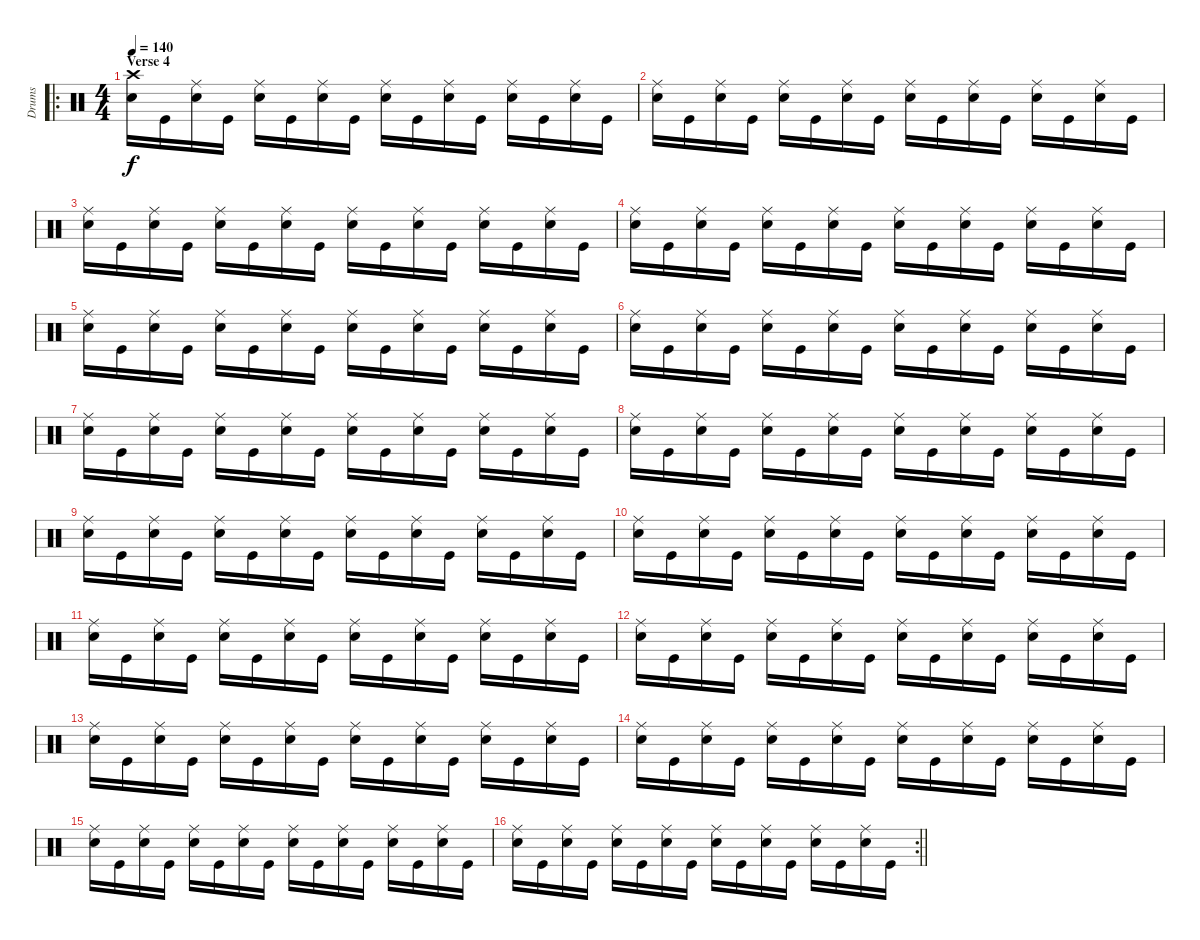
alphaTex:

\track ("Drums" "Drums") {instrument percussion}
\staff {score}
\articulation defaults
\ro
\ts (4 4)
\section ("" "Verse 4")
\tempo 140
\clef neutral
\ks c
("Crash high (hit)" "Snare (hit) 2").16{dy f} "Kick (hit)".16 ("Ride (middle)" "Snare (hit) 2").16 "Kick (hit)".16 ("Ride (middle)" "Snare (hit) 2").16 "Kick (hit)".16 ("Ride (middle)" "Snare (hit) 2").16 "Kick (hit)".16 ("Ride (middle)" "Snare (hit) 2").16 "Kick (hit)".16 ("Ride (middle)" "Snare (hit) 2").16 "Kick (hit)".16 ("Ride (middle)" "Snare (hit) 2").16 "Kick (hit)".16 ("Ride (middle)" "Snare (hit) 2").16 "Kick (hit)".16 |
("Ride (middle)" "Snare (hit) 2").16 "Kick (hit)".16 ("Ride (middle)" "Snare (hit) 2").16 "Kick (hit)".16 ("Ride (middle)" "Snare (hit) 2").16 "Kick (hit)".16 ("Ride (middle)" "Snare (hit) 2").16 "Kick (hit)".16 ("Ride (middle)" "Snare (hit) 2").16 "Kick (hit)".16 ("Ride (middle)" "Snare (hit) 2").16 "Kick (hit)".16 ("Ride (middle)" "Snare (hit) 2").16 "Kick (hit)".16 ("Ride (middle)" "Snare (hit) 2").16 "Kick (hit)".16 |
("Ride (middle)" "Snare (hit) 2").16 "Kick (hit)".16 ("Ride (middle)" "Snare (hit) 2").16 "Kick (hit)".16 ("Ride (middle)" "Snare (hit) 2").16 "Kick (hit)".16 ("Ride (middle)" "Snare (hit) 2").16 "Kick (hit)".16 ("Ride (middle)" "Snare (hit) 2").16 "Kick (hit)".16 ("Ride (middle)" "Snare (hit) 2").16 "Kick (hit)".16 ("Ride (middle)" "Snare (hit) 2").16 "Kick (hit)".16 ("Ride (middle)" "Snare (hit) 2").16 "Kick (hit)".16 |
("Ride (middle)" "Snare (hit) 2").16 "Kick (hit)".16 ("Ride (middle)" "Snare (hit) 2").16 "Kick (hit)".16 ("Ride (middle)" "Snare (hit) 2").16 "Kick (hit)".16 ("Ride (middle)" "Snare (hit) 2").16 "Kick (hit)".16 ("Ride (middle)" "Snare (hit) 2").16 "Kick (hit)".16 ("Ride (middle)" "Snare (hit) 2").16 "Kick (hit)".16 ("Ride (middle)" "Snare (hit) 2").16 "Kick (hit)".16 ("Ride (middle)" "Snare (hit) 2").16 "Kick (hit)".16 |
("Ride (middle)" "Snare (hit) 2").16 "Kick (hit)".16 ("Ride (middle)" "Snare (hit) 2").16 "Kick (hit)".16 ("Ride (middle)" "Snare (hit) 2").16 "Kick (hit)".16 ("Ride (middle)" "Snare (hit) 2").16 "Kick (hit)".16 ("Ride (middle)" "Snare (hit) 2").16 "Kick (hit)".16 ("Ride (middle)" "Snare (hit) 2").16 "Kick (hit)".16 ("Ride (middle)" "Snare (hit) 2").16 "Kick (hit)".16 ("Ride (middle)" "Snare (hit) 2").16 "Kick (hit)".16 |
("Ride (middle)" "Snare (hit) 2").16 "Kick (hit)".16 ("Ride (middle)" "Snare (hit) 2").16 "Kick (hit)".16 ("Ride (middle)" "Snare (hit) 2").16 "Kick (hit)".16 ("Ride (middle)" "Snare (hit) 2").16 "Kick (hit)".16 ("Ride (middle)" "Snare (hit) 2").16 "Kick (hit)".16 ("Ride (middle)" "Snare (hit) 2").16 "Kick (hit)".16 ("Ride (middle)" "Snare (hit) 2").16 "Kick (hit)".16 ("Ride (middle)" "Snare (hit) 2").16 "Kick (hit)".16 |
("Ride (middle)" "Snare (hit) 2").16 "Kick (hit)".16 ("Ride (middle)" "Snare (hit) 2").16 "Kick (hit)".16 ("Ride (middle)" "Snare (hit) 2").16 "Kick (hit)".16 ("Ride (middle)" "Snare (hit) 2").16 "Kick (hit)".16 ("Ride (middle)" "Snare (hit) 2").16 "Kick (hit)".16 ("Ride (middle)" "Snare (hit) 2").16 "Kick (hit)".16 ("Ride (middle)" "Snare (hit) 2").16 "Kick (hit)".16 ("Ride (middle)" "Snare (hit) 2").16 "Kick (hit)".16 |
("Ride (middle)" "Snare (hit) 2").16 "Kick (hit)".16 ("Ride (middle)" "Snare (hit) 2").16 "Kick (hit)".16 ("Ride (middle)" "Snare (hit) 2").16 "Kick (hit)".16 ("Ride (middle)" "Snare (hit) 2").16 "Kick (hit)".16 ("Ride (middle)" "Snare (hit) 2").16 "Kick (hit)".16 ("Ride (middle)" "Snare (hit) 2").16 "Kick (hit)".16 ("Ride (middle)" "Snare (hit) 2").16 "Kick (hit)".16 ("Ride (middle)" "Snare (hit) 2").16 "Kick (hit)".16 |
("Ride (middle)" "Snare (hit) 2").16 "Kick (hit)".16 ("Ride (middle)" "Snare (hit) 2").16 "Kick (hit)".16 ("Ride (middle)" "Snare (hit) 2").16 "Kick (hit)".16 ("Ride (middle)" "Snare (hit) 2").16 "Kick (hit)".16 ("Ride (middle)" "Snare (hit) 2").16 "Kick (hit)".16 ("Ride (middle)" "Snare (hit) 2").16 "Kick (hit)".16 ("Ride (middle)" "Snare (hit) 2").16 "Kick (hit)".16 ("Ride (middle)" "Snare (hit) 2").16 "Kick (hit)".16 |
("Ride (middle)" "Snare (hit) 2").16 "Kick (hit)".16 ("Ride (middle)" "Snare (hit) 2").16 "Kick (hit)".16 ("Ride (middle)" "Snare (hit) 2").16 "Kick (hit)".16 ("Ride (middle)" "Snare (hit) 2").16 "Kick (hit)".16 ("Ride (middle)" "Snare (hit) 2").16 "Kick (hit)".16 ("Ride (middle)" "Snare (hit) 2").16 "Kick (hit)".16 ("Ride (middle)" "Snare (hit) 2").16 "Kick (hit)".16 ("Ride (middle)" "Snare (hit) 2").16 "Kick (hit)".16 |
("Ride (middle)" "Snare (hit) 2").16 "Kick (hit)".16 ("Ride (middle)" "Snare (hit) 2").16 "Kick (hit)".16 ("Ride (middle)" "Snare (hit) 2").16 "Kick (hit)".16 ("Ride (middle)" "Snare (hit) 2").16 "Kick (hit)".16 ("Ride (middle)" "Snare (hit) 2").16 "Kick (hit)".16 ("Ride (middle)" "Snare (hit) 2").16 "Kick (hit)".16 ("Ride (middle)" "Snare (hit) 2").16 "Kick (hit)".16 ("Ride (middle)" "Snare (hit) 2").16 "Kick (hit)".16 |
("Ride (middle)" "Snare (hit) 2").16 "Kick (hit)".16 ("Ride (middle)" "Snare (hit) 2").16 "Kick (hit)".16 ("Ride (middle)" "Snare (hit) 2").16 "Kick (hit)".16 ("Ride (middle)" "Snare (hit) 2").16 "Kick (hit)".16 ("Ride (middle)" "Snare (hit) 2").16 "Kick (hit)".16 ("Ride (middle)" "Snare (hit) 2").16 "Kick (hit)".16 ("Ride (middle)" "Snare (hit) 2").16 "Kick (hit)".16 ("Ride (middle)" "Snare (hit) 2").16 "Kick (hit)".16 |
("Ride (middle)" "Snare (hit) 2").16 "Kick (hit)".16 ("Ride (middle)" "Snare (hit) 2").16 "Kick (hit)".16 ("Ride (middle)" "Snare (hit) 2").16 "Kick (hit)".16 ("Ride (middle)" "Snare (hit) 2").16 "Kick (hit)".16 ("Ride (middle)" "Snare (hit) 2").16 "Kick (hit)".16 ("Ride (middle)" "Snare (hit) 2").16 "Kick (hit)".16 ("Ride (middle)" "Snare (hit) 2").16 "Kick (hit)".16 ("Ride (middle)" "Snare (hit) 2").16 "Kick (hit)".16 |
("Ride (middle)" "Snare (hit) 2").16 "Kick (hit)".16 ("Ride (middle)" "Snare (hit) 2").16 "Kick (hit)".16 ("Ride (middle)" "Snare (hit) 2").16 "Kick (hit)".16 ("Ride (middle)" "Snare (hit) 2").16 "Kick (hit)".16 ("Ride (middle)" "Snare (hit) 2").16 "Kick (hit)".16 ("Ride (middle)" "Snare (hit) 2").16 "Kick (hit)".16 ("Ride (middle)" "Snare (hit) 2").16 "Kick (hit)".16 ("Ride (middle)" "Snare (hit) 2").16 "Kick (hit)".16 |
("Ride (middle)" "Snare (hit) 2").16 "Kick (hit)".16 ("Ride (middle)" "Snare (hit) 2").16 "Kick (hit)".16 ("Ride (middle)" "Snare (hit) 2").16 "Kick (hit)".16 ("Ride (middle)" "Snare (hit) 2").16 "Kick (hit)".16 ("Ride (middle)" "Snare (hit) 2").16 "Kick (hit)".16 ("Ride (middle)" "Snare (hit) 2").16 "Kick (hit)".16 ("Ride (middle)" "Snare (hit) 2").16 "Kick (hit)".16 ("Ride (middle)" "Snare (hit) 2").16 "Kick (hit)".16 |
\rc 2
\barLineRight lightlight
("Ride (middle)" "Snare (hit) 2").16 "Kick (hit)".16 ("Ride (middle)" "Snare (hit) 2").16 "Kick (hit)".16 ("Ride (middle)" "Snare (hit) 2").16 "Kick (hit)".16 ("Ride (middle)" "Snare (hit) 2").16 "Kick (hit)".16 ("Ride (middle)" "Snare (hit) 2").16 "Kick (hit)".16 ("Ride (middle)" "Snare (hit) 2").16 "Kick (hit)".16 ("Ride (middle)" "Snare (hit) 2").16 "Kick (hit)".16 ("Ride (middle)" "Snare (hit) 2").16 "Kick (hit)".16
